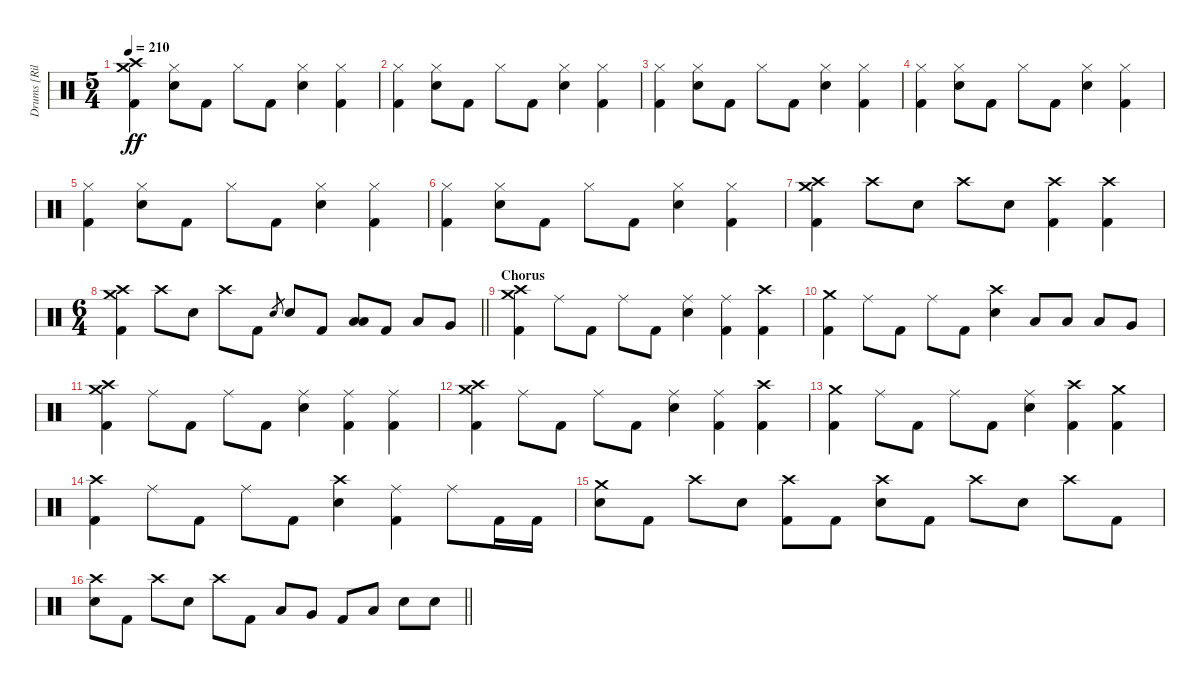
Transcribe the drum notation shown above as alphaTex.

\track ("Drums [Riley]" "Drums [Ril") {instrument percussion}
\staff {score}
\articulation defaults
\ts (5 4)
\tempo 210
\clef neutral
\ks c
("Crash medium (hit)" "Crash high (hit)" "Kick (hit) 2").4{dy ff} ("Hi-Hat (closed)" "Electric Snare (hit)").8 "Kick (hit) 2".8 "Hi-Hat (closed)".8 "Kick (hit) 2".8 ("Hi-Hat (closed)" "Electric Snare (hit)").4 ("Hi-Hat (closed)" "Kick (hit) 2").4 |
("Hi-Hat (closed)" "Kick (hit) 2").4 ("Hi-Hat (closed)" "Electric Snare (hit)").8 "Kick (hit) 2".8 "Hi-Hat (closed)".8 "Kick (hit) 2".8 ("Hi-Hat (closed)" "Electric Snare (hit)").4 ("Hi-Hat (closed)" "Kick (hit) 2").4 |
("Hi-Hat (closed)" "Kick (hit) 2").4 ("Hi-Hat (closed)" "Electric Snare (hit)").8 "Kick (hit) 2".8 "Hi-Hat (closed)".8 "Kick (hit) 2".8 ("Hi-Hat (closed)" "Electric Snare (hit)").4 ("Hi-Hat (closed)" "Kick (hit) 2").4 |
("Hi-Hat (closed)" "Kick (hit) 2").4 ("Hi-Hat (closed)" "Electric Snare (hit)").8 "Kick (hit) 2".8 "Hi-Hat (closed)".8 "Kick (hit) 2".8 ("Hi-Hat (closed)" "Electric Snare (hit)").4 ("Hi-Hat (closed)" "Kick (hit) 2").4 |
("Hi-Hat (closed)" "Kick (hit) 2").4 ("Hi-Hat (closed)" "Electric Snare (hit)").8 "Kick (hit) 2".8 "Hi-Hat (closed)".8 "Kick (hit) 2".8 ("Hi-Hat (closed)" "Electric Snare (hit)").4 ("Hi-Hat (closed)" "Kick (hit) 2").4 |
("Hi-Hat (closed)" "Kick (hit) 2").4 ("Hi-Hat (closed)" "Electric Snare (hit)").8 "Kick (hit) 2".8 "Hi-Hat (closed)".8 "Kick (hit) 2".8 ("Hi-Hat (closed)" "Electric Snare (hit)").4 ("Hi-Hat (closed)" "Kick (hit) 2").4 |
("Crash medium (hit)" "Crash high (hit)" "Kick (hit) 2").4 "Crash high (hit)".8 "Electric Snare (hit)".8 "Crash high (hit)".8 "Electric Snare (hit)".8 ("Crash high (hit)" "Kick (hit) 2").4 ("Crash high (hit)" "Kick (hit) 2").4 |
\ts (6 4)
\barLineRight lightlight
("Crash medium (hit)" "Crash high (hit)" "Kick (hit) 2").4 "Crash high (hit)".8 "Electric Snare (hit)".8 "Crash high (hit)".8 "Kick (hit) 2".8 "Electric Snare (hit)".8{gr} "Electric Snare (hit)".8 "Kick (hit) 2".8 ("Low Tom (hit)" "Low Tom (hit)").8{bu 60} "Kick (hit) 2".8 "Low Tom (hit)".8 "Very Low Tom (hit)".8 |
\section ("" "Chorus")
("Crash medium (hit)" "Crash high (hit)" "Kick (hit) 2").4 "Ride (middle)".8 "Kick (hit) 2".8 "Ride (middle)".8 "Kick (hit) 2".8 ("Ride (middle)" "Electric Snare (hit)").4 ("Ride (middle)" "Kick (hit) 2").4 ("Crash high (hit)" "Kick (hit) 2").4 |
("Crash medium (hit)" "Kick (hit) 2").4 "Ride (middle)".8 "Kick (hit) 2".8 "Ride (middle)".8 "Kick (hit) 2".8 ("Crash high (hit)" "Electric Snare (hit)").4 "Low Tom (hit)".8 "Low Tom (hit)".8 "Low Tom (hit)".8 "Very Low Tom (hit)".8 |
("Crash medium (hit)" "Crash high (hit)" "Kick (hit) 2").4 "Ride (middle)".8 "Kick (hit) 2".8 "Ride (middle)".8 "Kick (hit) 2".8 ("Ride (middle)" "Electric Snare (hit)").4 ("Ride (middle)" "Kick (hit) 2").4 ("Ride (middle)" "Kick (hit) 2").4 |
("Crash medium (hit)" "Crash high (hit)" "Kick (hit) 2").4 "Ride (middle)".8 "Kick (hit) 2".8 "Ride (middle)".8 "Kick (hit) 2".8 ("Ride (middle)" "Electric Snare (hit)").4 ("Ride (middle)" "Kick (hit) 2").4 ("Crash high (hit)" "Kick (hit) 2").4 |
("Crash medium (hit)" "Kick (hit) 2").4 "Ride (middle)".8 "Kick (hit) 2".8 "Ride (middle)".8 "Kick (hit) 2".8 ("Ride (middle)" "Electric Snare (hit)").4 ("Crash high (hit)" "Kick (hit) 2").4 ("Crash medium (hit)" "Kick (hit) 2").4 |
("Crash high (hit)" "Kick (hit) 2").4 "Ride (middle)".8 "Kick (hit) 2".8 "Ride (middle)".8 "Kick (hit) 2".8 ("Crash high (hit)" "Electric Snare (hit)").4 ("Ride (middle)" "Kick (hit) 2").4 "Ride (middle)".8 "Kick (hit) 2".16 "Kick (hit) 2".16 |
("Crash medium (hit)" "Electric Snare (hit)").8 "Kick (hit) 2".8 "Crash high (hit)".8 "Electric Snare (hit)".8 ("Crash high (hit)" "Kick (hit) 2").8 "Kick (hit) 2".8 ("Crash high (hit)" "Electric Snare (hit)").8 "Kick (hit) 2".8 "Crash high (hit)".8 "Electric Snare (hit)".8 "Crash high (hit)".8 "Kick (hit) 2".8 |
\barLineRight lightlight
("Crash high (hit)" "Electric Snare (hit)").8 "Kick (hit) 2".8 "Crash high (hit)".8 "Electric Snare (hit)".8 "Crash high (hit)".8 "Kick (hit) 2".8 "Low Tom (hit)".8 "Very Low Tom (hit)".8 "Kick (hit) 2".8 "Low Tom (hit)".8 "Electric Snare (hit)".8 "Electric Snare (hit)".8
